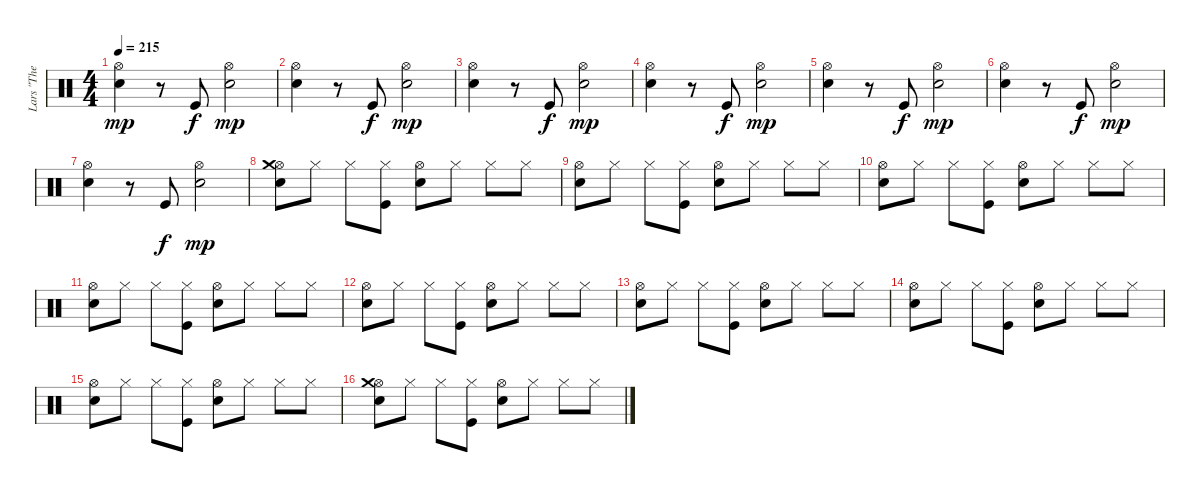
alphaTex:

\track ("Lars \"The Antichrist\" Ulrich" "Lars \"The ") {instrument percussion}
\staff {score}
\articulation defaults
\ts (4 4)
\tempo 215
\clef neutral
\ks c
("Hi-Hat (open)" "Electric Snare (hit)").4{dy mp} r.8 "Kick (hit)".8{dy f} ("Hi-Hat (open)" "Electric Snare (hit)").2{dy mp} |
("Hi-Hat (open)" "Electric Snare (hit)").4 r.8 "Kick (hit)".8{dy f} ("Hi-Hat (open)" "Electric Snare (hit)").2{dy mp} |
("Hi-Hat (open)" "Electric Snare (hit)").4 r.8 "Kick (hit)".8{dy f} ("Hi-Hat (open)" "Electric Snare (hit)").2{dy mp} |
("Hi-Hat (open)" "Electric Snare (hit)").4 r.8 "Kick (hit)".8{dy f} ("Hi-Hat (open)" "Electric Snare (hit)").2{dy mp} |
("Hi-Hat (open)" "Electric Snare (hit)").4 r.8 "Kick (hit)".8{dy f} ("Hi-Hat (open)" "Electric Snare (hit)").2{dy mp} |
("Hi-Hat (open)" "Electric Snare (hit)").4 r.8 "Kick (hit)".8{dy f} ("Hi-Hat (open)" "Electric Snare (hit)").2{dy mp} |
("Hi-Hat (open)" "Electric Snare (hit)").4 r.8 "Kick (hit)".8{dy f} ("Hi-Hat (open)" "Electric Snare (hit)").2{dy mp} |
("Hi-Hat (open)" "Crash medium (hit)" "Electric Snare (hit)").8 "Hi-Hat (closed)".8 "Hi-Hat (closed)".8 ("Hi-Hat (closed)" "Kick (hit)").8 ("Hi-Hat (open)" "Electric Snare (hit)").8 "Hi-Hat (closed)".8 "Hi-Hat (closed)".8 "Hi-Hat (closed)".8 |
("Hi-Hat (open)" "Electric Snare (hit)").8 "Hi-Hat (closed)".8 "Hi-Hat (closed)".8 ("Hi-Hat (closed)" "Kick (hit)").8 ("Hi-Hat (open)" "Electric Snare (hit)").8 "Hi-Hat (closed)".8 "Hi-Hat (closed)".8 "Hi-Hat (closed)".8 |
("Hi-Hat (open)" "Electric Snare (hit)").8 "Hi-Hat (closed)".8 "Hi-Hat (closed)".8 ("Hi-Hat (closed)" "Kick (hit)").8 ("Hi-Hat (open)" "Electric Snare (hit)").8 "Hi-Hat (closed)".8 "Hi-Hat (closed)".8 "Hi-Hat (closed)".8 |
("Hi-Hat (open)" "Electric Snare (hit)").8 "Hi-Hat (closed)".8 "Hi-Hat (closed)".8 ("Hi-Hat (closed)" "Kick (hit)").8 ("Hi-Hat (open)" "Electric Snare (hit)").8 "Hi-Hat (closed)".8 "Hi-Hat (closed)".8 "Hi-Hat (closed)".8 |
("Hi-Hat (open)" "Electric Snare (hit)").8 "Hi-Hat (closed)".8 "Hi-Hat (closed)".8 ("Hi-Hat (closed)" "Kick (hit)").8 ("Hi-Hat (open)" "Electric Snare (hit)").8 "Hi-Hat (closed)".8 "Hi-Hat (closed)".8 "Hi-Hat (closed)".8 |
("Hi-Hat (open)" "Electric Snare (hit)").8 "Hi-Hat (closed)".8 "Hi-Hat (closed)".8 ("Hi-Hat (closed)" "Kick (hit)").8 ("Hi-Hat (open)" "Electric Snare (hit)").8 "Hi-Hat (closed)".8 "Hi-Hat (closed)".8 "Hi-Hat (closed)".8 |
("Hi-Hat (open)" "Electric Snare (hit)").8 "Hi-Hat (closed)".8 "Hi-Hat (closed)".8 ("Hi-Hat (closed)" "Kick (hit)").8 ("Hi-Hat (open)" "Electric Snare (hit)").8 "Hi-Hat (closed)".8 "Hi-Hat (closed)".8 "Hi-Hat (closed)".8 |
("Hi-Hat (open)" "Electric Snare (hit)").8 "Hi-Hat (closed)".8 "Hi-Hat (closed)".8 ("Hi-Hat (closed)" "Kick (hit)").8 ("Hi-Hat (open)" "Electric Snare (hit)").8 "Hi-Hat (closed)".8 "Hi-Hat (closed)".8 "Hi-Hat (closed)".8 |
("Hi-Hat (open)" "Crash medium (hit)" "Electric Snare (hit)").8 "Hi-Hat (closed)".8 "Hi-Hat (closed)".8 ("Hi-Hat (closed)" "Kick (hit)").8 ("Hi-Hat (open)" "Electric Snare (hit)").8 "Hi-Hat (closed)".8 "Hi-Hat (closed)".8 "Hi-Hat (closed)".8
